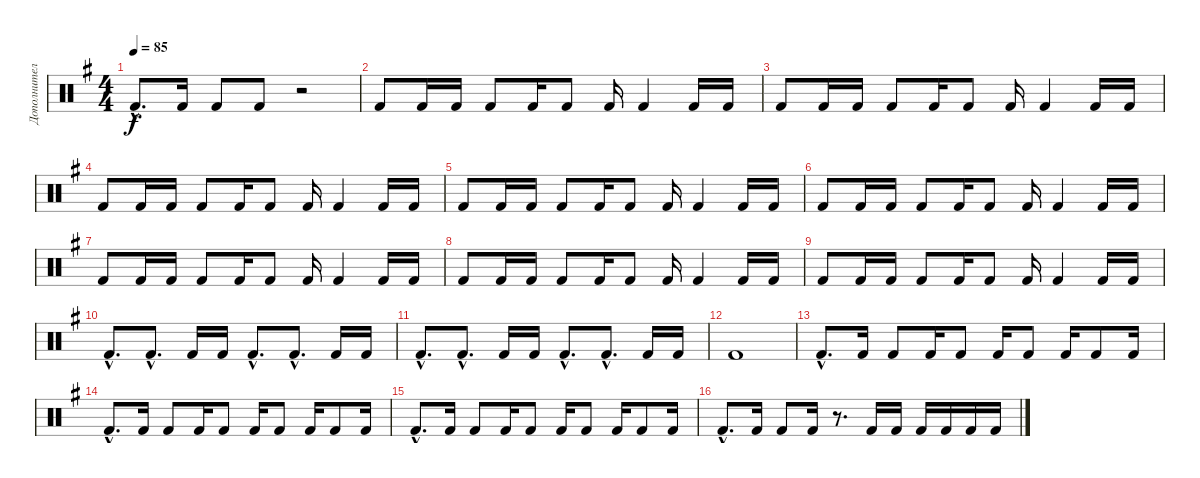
\track ("Дополнительно" "Дополнител") {instrument percussion}
\staff {score}
\articulation defaults
\ts (4 4)
\tempo 85
\clef neutral
\ks eminor "Kick (hit) 2"{hac}.8{d dy f} "Kick (hit) 2".16 "Kick (hit) 2".8 "Kick (hit) 2".8
r.2 |
"Kick (hit) 2".8 "Kick (hit) 2".16 "Kick (hit) 2".16 "Kick (hit) 2".8 "Kick (hit) 2".16 "Kick (hit) 2".8 "Kick (hit) 2".16 "Kick (hit) 2".4 "Kick (hit) 2".16 "Kick (hit) 2".16 |
"Kick (hit) 2".8 "Kick (hit) 2".16 "Kick (hit) 2".16 "Kick (hit) 2".8 "Kick (hit) 2".16 "Kick (hit) 2".8 "Kick (hit) 2".16 "Kick (hit) 2".4 "Kick (hit) 2".16 "Kick (hit) 2".16 |
"Kick (hit) 2".8 "Kick (hit) 2".16 "Kick (hit) 2".16 "Kick (hit) 2".8 "Kick (hit) 2".16 "Kick (hit) 2".8 "Kick (hit) 2".16 "Kick (hit) 2".4 "Kick (hit) 2".16 "Kick (hit) 2".16 |
"Kick (hit) 2".8 "Kick (hit) 2".16 "Kick (hit) 2".16 "Kick (hit) 2".8 "Kick (hit) 2".16 "Kick (hit) 2".8 "Kick (hit) 2".16 "Kick (hit) 2".4 "Kick (hit) 2".16 "Kick (hit) 2".16 |
"Kick (hit) 2".8 "Kick (hit) 2".16 "Kick (hit) 2".16 "Kick (hit) 2".8 "Kick (hit) 2".16 "Kick (hit) 2".8 "Kick (hit) 2".16 "Kick (hit) 2".4 "Kick (hit) 2".16 "Kick (hit) 2".16 |
"Kick (hit) 2".8 "Kick (hit) 2".16 "Kick (hit) 2".16 "Kick (hit) 2".8 "Kick (hit) 2".16 "Kick (hit) 2".8 "Kick (hit) 2".16 "Kick (hit) 2".4 "Kick (hit) 2".16 "Kick (hit) 2".16 |
"Kick (hit) 2".8 "Kick (hit) 2".16 "Kick (hit) 2".16 "Kick (hit) 2".8 "Kick (hit) 2".16 "Kick (hit) 2".8 "Kick (hit) 2".16 "Kick (hit) 2".4 "Kick (hit) 2".16 "Kick (hit) 2".16 |
"Kick (hit) 2".8 "Kick (hit) 2".16 "Kick (hit) 2".16 "Kick (hit) 2".8 "Kick (hit) 2".16 "Kick (hit) 2".8 "Kick (hit) 2".16 "Kick (hit) 2".4 "Kick (hit) 2".16 "Kick (hit) 2".16 |
"Kick (hit) 2"{hac}.8{d} "Kick (hit) 2"{hac}.8{d} "Kick (hit) 2".16 "Kick (hit) 2".16 "Kick (hit) 2"{hac}.8{d} "Kick (hit) 2"{hac}.8{d} "Kick (hit) 2".16 "Kick (hit) 2".16 |
"Kick (hit) 2"{hac}.8{d} "Kick (hit) 2"{hac}.8{d} "Kick (hit) 2".16 "Kick (hit) 2".16 "Kick (hit) 2"{hac}.8{d} "Kick (hit) 2"{hac}.8{d} "Kick (hit) 2".16 "Kick (hit) 2".16 |
"Kick (hit) 2".1 |
"Kick (hit) 2"{hac}.8{d} "Kick (hit) 2".16 "Kick (hit) 2".8 "Kick (hit) 2".16 "Kick (hit) 2".8 "Kick (hit) 2".16 "Kick (hit) 2".8 "Kick (hit) 2".16 "Kick (hit) 2".8 "Kick (hit) 2".16 |
"Kick (hit) 2"{hac}.8{d} "Kick (hit) 2".16 "Kick (hit) 2".8 "Kick (hit) 2".16 "Kick (hit) 2".8 "Kick (hit) 2".16 "Kick (hit) 2".8 "Kick (hit) 2".16 "Kick (hit) 2".8 "Kick (hit) 2".16 |
"Kick (hit) 2"{hac}.8{d} "Kick (hit) 2".16 "Kick (hit) 2".8 "Kick (hit) 2".16 "Kick (hit) 2".8 "Kick (hit) 2".16 "Kick (hit) 2".8 "Kick (hit) 2".16 "Kick (hit) 2".8 "Kick (hit) 2".16 |
"Kick (hit) 2"{hac}.8{d} "Kick (hit) 2".16 "Kick (hit) 2".8 "Kick (hit) 2".16 r.8{d} "Kick (hit) 2".16 "Kick (hit) 2".16 "Kick (hit) 2".16 "Kick (hit) 2".16 "Kick (hit) 2".16 "Kick (hit) 2".16
